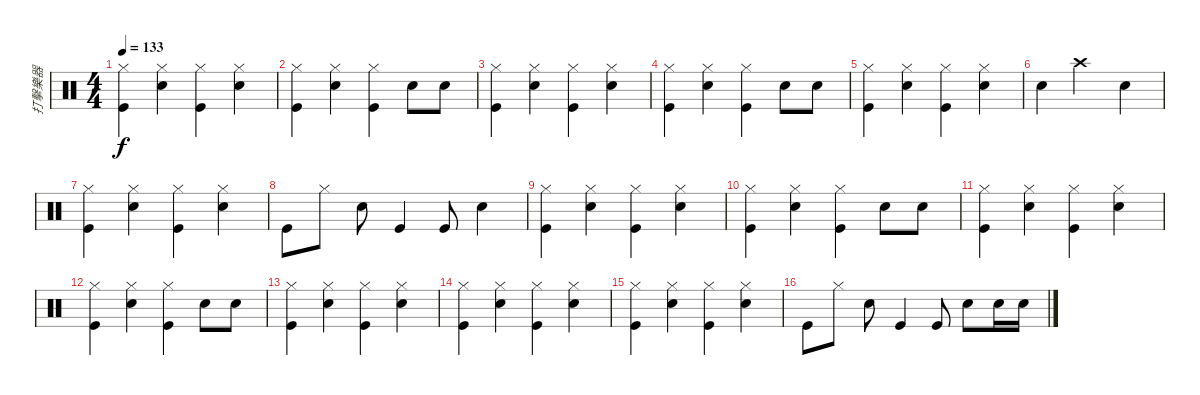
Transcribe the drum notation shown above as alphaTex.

\track ("打擊樂器" "打擊樂器") {instrument percussion}
\staff {score}
\articulation defaults
\ts (4 4)
\tempo 133
\clef neutral
\ks c
("Hi-Hat (closed)" "Kick (hit)").4{dy f} ("Hi-Hat (closed)" "Snare (hit) 2").4 ("Hi-Hat (closed)" "Kick (hit)").4 ("Hi-Hat (closed)" "Snare (hit) 2").4 |
("Hi-Hat (closed)" "Kick (hit)").4 ("Hi-Hat (closed)" "Snare (hit) 2").4 ("Hi-Hat (closed)" "Kick (hit)").4 "Snare (hit) 2".8 "Snare (hit) 2".8 |
("Hi-Hat (closed)" "Kick (hit)").4 ("Hi-Hat (closed)" "Snare (hit) 2").4 ("Hi-Hat (closed)" "Kick (hit)").4 ("Hi-Hat (closed)" "Snare (hit) 2").4 |
("Hi-Hat (closed)" "Kick (hit)").4 ("Hi-Hat (closed)" "Snare (hit) 2").4 ("Hi-Hat (closed)" "Kick (hit)").4 "Snare (hit) 2".8 "Snare (hit) 2".8 |
("Hi-Hat (closed)" "Kick (hit)").4 ("Hi-Hat (closed)" "Snare (hit) 2").4 ("Hi-Hat (closed)" "Kick (hit)").4 ("Hi-Hat (closed)" "Snare (hit) 2").4 |
"Snare (hit) 2".4 "Crash high (hit)".2 "Snare (hit) 2".4 |
("Hi-Hat (closed)" "Kick (hit)").4 ("Hi-Hat (closed)" "Snare (hit) 2").4 ("Hi-Hat (closed)" "Kick (hit)").4 ("Hi-Hat (closed)" "Snare (hit) 2").4 |
"Kick (hit)".8 "Hi-Hat (closed)".8 "Snare (hit) 2".8 "Kick (hit)".4 "Kick (hit)".8 "Snare (hit) 2".4 |
("Hi-Hat (closed)" "Kick (hit)").4 ("Hi-Hat (closed)" "Snare (hit) 2").4 ("Hi-Hat (closed)" "Kick (hit)").4 ("Hi-Hat (closed)" "Snare (hit) 2").4 |
("Hi-Hat (closed)" "Kick (hit)").4 ("Hi-Hat (closed)" "Snare (hit) 2").4 ("Hi-Hat (closed)" "Kick (hit)").4 "Snare (hit) 2".8 "Snare (hit) 2".8 |
("Hi-Hat (closed)" "Kick (hit)").4 ("Hi-Hat (closed)" "Snare (hit) 2").4 ("Hi-Hat (closed)" "Kick (hit)").4 ("Hi-Hat (closed)" "Snare (hit) 2").4 |
("Hi-Hat (closed)" "Kick (hit)").4 ("Hi-Hat (closed)" "Snare (hit) 2").4 ("Hi-Hat (closed)" "Kick (hit)").4 "Snare (hit) 2".8 "Snare (hit) 2".8 |
("Hi-Hat (closed)" "Kick (hit)").4 ("Hi-Hat (closed)" "Snare (hit) 2").4 ("Hi-Hat (closed)" "Kick (hit)").4 ("Hi-Hat (closed)" "Snare (hit) 2").4 |
("Hi-Hat (closed)" "Kick (hit)").4 ("Hi-Hat (closed)" "Snare (hit) 2").4 ("Hi-Hat (closed)" "Kick (hit)").4 ("Hi-Hat (closed)" "Snare (hit) 2").4 |
("Hi-Hat (closed)" "Kick (hit)").4 ("Hi-Hat (closed)" "Snare (hit) 2").4 ("Hi-Hat (closed)" "Kick (hit)").4 ("Hi-Hat (closed)" "Snare (hit) 2").4 |
"Kick (hit)".8 "Hi-Hat (closed)".8 "Snare (hit) 2".8 "Kick (hit)".4 "Kick (hit)".8 "Snare (hit) 2".8 "Snare (hit) 2".16 "Snare (hit) 2".16
